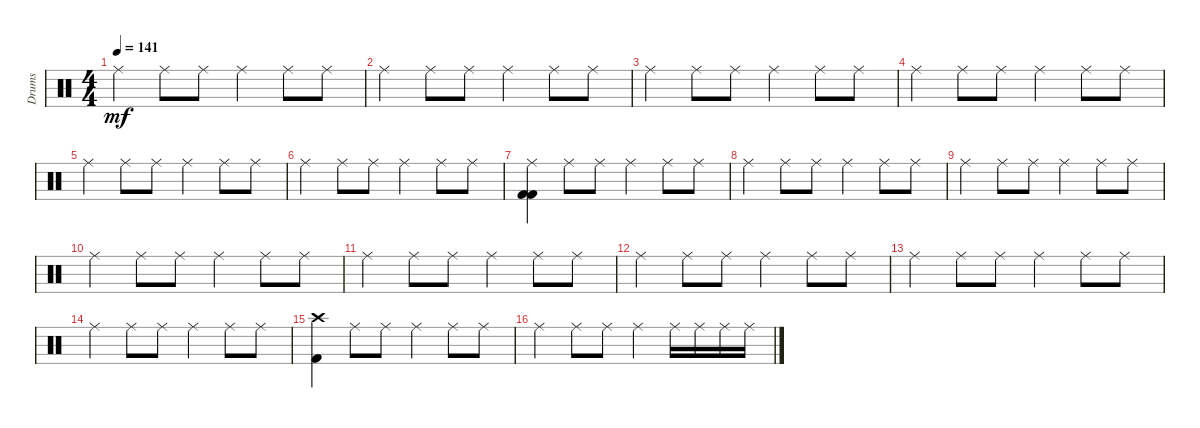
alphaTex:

\track ("Drums" "Drums") {instrument percussion}
\staff {score}
\articulation defaults
\ts (4 4)
\tempo 141
\clef neutral
\ks c "Ride (middle)".4{dy mf} "Ride (middle)".8 "Ride (middle)".8 "Ride (middle)".4 "Ride (middle)".8 "Ride (middle)".8
|
"Ride (middle)".4 "Ride (middle)".8 "Ride (middle)".8 "Ride (middle)".4 "Ride (middle)".8 "Ride (middle)".8 |
"Ride (middle)".4 "Ride (middle)".8 "Ride (middle)".8 "Ride (middle)".4 "Ride (middle)".8 "Ride (middle)".8 |
"Ride (middle)".4 "Ride (middle)".8 "Ride (middle)".8 "Ride (middle)".4 "Ride (middle)".8 "Ride (middle)".8 |
"Ride (middle)".4 "Ride (middle)".8 "Ride (middle)".8 "Ride (middle)".4 "Ride (middle)".8 "Ride (middle)".8 |
"Ride (middle)".4 "Ride (middle)".8 "Ride (middle)".8 "Ride (middle)".4 "Ride (middle)".8 "Ride (middle)".8 |
("Ride (middle)" "Kick (hit) 2" "Kick (hit) 2").4 "Ride (middle)".8 "Ride (middle)".8 "Ride (middle)".4 "Ride (middle)".8 "Ride (middle)".8 |
"Ride (middle)".4 "Ride (middle)".8 "Ride (middle)".8 "Ride (middle)".4 "Ride (middle)".8 "Ride (middle)".8 |
"Ride (middle)".4 "Ride (middle)".8 "Ride (middle)".8 "Ride (middle)".4 "Ride (middle)".8 "Ride (middle)".8 |
"Ride (middle)".4 "Ride (middle)".8 "Ride (middle)".8 "Ride (middle)".4 "Ride (middle)".8 "Ride (middle)".8 |
"Ride (middle)".4 "Ride (middle)".8 "Ride (middle)".8 "Ride (middle)".4 "Ride (middle)".8 "Ride (middle)".8 |
"Ride (middle)".4 "Ride (middle)".8 "Ride (middle)".8 "Ride (middle)".4 "Ride (middle)".8 "Ride (middle)".8 |
"Ride (middle)".4 "Ride (middle)".8 "Ride (middle)".8 "Ride (middle)".4 "Ride (middle)".8 "Ride (middle)".8 |
"Ride (middle)".4 "Ride (middle)".8 "Ride (middle)".8 "Ride (middle)".4 "Ride (middle)".8 "Ride (middle)".8 |
("Crash high (hit)" "Kick (hit) 2").4 "Ride (middle)".8 "Ride (middle)".8 "Ride (middle)".4 "Ride (middle)".8 "Ride (middle)".8 |
"Ride (middle)".4 "Ride (middle)".8 "Ride (middle)".8 "Ride (middle)".4 "Ride (middle)".16 "Ride (middle)".16 "Ride (middle)".16 "Ride (middle)".16
